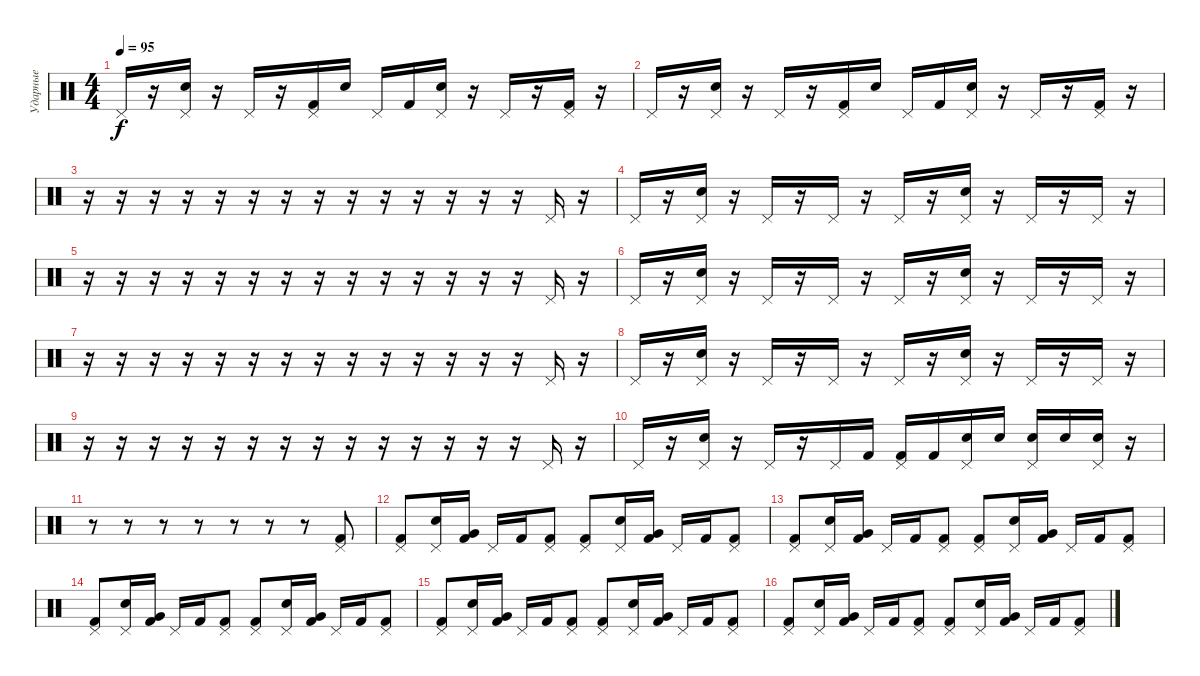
\track ("Ударные" "Ударные") {instrument percussion}
\staff {score}
\articulation defaults
\ts (4 4)
\tempo 95
\clef neutral
\ks c "Pedal Hi-Hat (hit)".16{dy f}
r.16 ("Pedal Hi-Hat (hit)" "Snare (hit) 2").16 r.16 "Pedal Hi-Hat (hit)".16 r.16 ("Pedal Hi-Hat (hit)" "Kick (hit) 2").16 "Snare (hit) 2".16 "Pedal Hi-Hat (hit)".16 "Kick (hit) 2".16 ("Pedal Hi-Hat (hit)" "Snare (hit) 2").16 r.16 "Pedal Hi-Hat (hit)".16 r.16 ("Pedal Hi-Hat (hit)" "Kick (hit) 2").16 r.16 |
"Pedal Hi-Hat (hit)".16 r.16 ("Pedal Hi-Hat (hit)" "Snare (hit) 2").16 r.16 "Pedal Hi-Hat (hit)".16 r.16 ("Pedal Hi-Hat (hit)" "Kick (hit) 2").16 "Snare (hit) 2".16 "Pedal Hi-Hat (hit)".16 "Kick (hit) 2".16 ("Pedal Hi-Hat (hit)" "Snare (hit) 2").16 r.16 "Pedal Hi-Hat (hit)".16 r.16 ("Pedal Hi-Hat (hit)" "Kick (hit) 2").16 r.16 |
r.16 r.16 r.16 r.16 r.16 r.16 r.16 r.16 r.16 r.16 r.16 r.16 r.16 r.16 "Pedal Hi-Hat (hit)".16 r.16 |
"Pedal Hi-Hat (hit)".16 r.16 ("Pedal Hi-Hat (hit)" "Snare (hit) 2").16 r.16 "Pedal Hi-Hat (hit)".16 r.16 "Pedal Hi-Hat (hit)".16 r.16 "Pedal Hi-Hat (hit)".16 r.16 ("Pedal Hi-Hat (hit)" "Snare (hit) 2").16 r.16 "Pedal Hi-Hat (hit)".16 r.16 "Pedal Hi-Hat (hit)".16 r.16 |
r.16 r.16 r.16 r.16 r.16 r.16 r.16 r.16 r.16 r.16 r.16 r.16 r.16 r.16 "Pedal Hi-Hat (hit)".16 r.16 |
"Pedal Hi-Hat (hit)".16 r.16 ("Pedal Hi-Hat (hit)" "Snare (hit) 2").16 r.16 "Pedal Hi-Hat (hit)".16 r.16 "Pedal Hi-Hat (hit)".16 r.16 "Pedal Hi-Hat (hit)".16 r.16 ("Pedal Hi-Hat (hit)" "Snare (hit) 2").16 r.16 "Pedal Hi-Hat (hit)".16 r.16 "Pedal Hi-Hat (hit)".16 r.16 |
r.16 r.16 r.16 r.16 r.16 r.16 r.16 r.16 r.16 r.16 r.16 r.16 r.16 r.16 "Pedal Hi-Hat (hit)".16 r.16 |
"Pedal Hi-Hat (hit)".16 r.16 ("Pedal Hi-Hat (hit)" "Snare (hit) 2").16 r.16 "Pedal Hi-Hat (hit)".16 r.16 "Pedal Hi-Hat (hit)".16 r.16 "Pedal Hi-Hat (hit)".16 r.16 ("Pedal Hi-Hat (hit)" "Snare (hit) 2").16 r.16 "Pedal Hi-Hat (hit)".16 r.16 "Pedal Hi-Hat (hit)".16 r.16 |
r.16 r.16 r.16 r.16 r.16 r.16 r.16 r.16 r.16 r.16 r.16 r.16 r.16 r.16 "Pedal Hi-Hat (hit)".16 r.16 |
"Pedal Hi-Hat (hit)".16 r.16 ("Pedal Hi-Hat (hit)" "Snare (hit) 2").16 r.16 "Pedal Hi-Hat (hit)".16 r.16 "Pedal Hi-Hat (hit)".16 "Kick (hit) 2".16 ("Pedal Hi-Hat (hit)" "Kick (hit) 2").16 "Kick (hit) 2".16 ("Pedal Hi-Hat (hit)" "Snare (hit) 2").16 "Snare (hit) 2".16 ("Pedal Hi-Hat (hit)" "Snare (hit) 2").16 "Snare (hit) 2".16 ("Pedal Hi-Hat (hit)" "Snare (hit) 2").16 r.16 |
r.8 r.8 r.8 r.8 r.8 r.8 r.8 ("Pedal Hi-Hat (hit)" "Kick (hit) 2").8 |
("Pedal Hi-Hat (hit)" "Kick (hit) 2").8 ("Pedal Hi-Hat (hit)" "Snare (hit) 2").16 ("Very Low Tom (hit)" "Kick (hit) 2").16 "Pedal Hi-Hat (hit)".16 "Kick (hit) 2".16 ("Pedal Hi-Hat (hit)" "Kick (hit) 2").8 ("Pedal Hi-Hat (hit)" "Kick (hit) 2").8 ("Pedal Hi-Hat (hit)" "Snare (hit) 2").16 ("Very Low Tom (hit)" "Kick (hit) 2").16 "Pedal Hi-Hat (hit)".16 "Kick (hit) 2".16 ("Pedal Hi-Hat (hit)" "Kick (hit) 2").8 |
("Pedal Hi-Hat (hit)" "Kick (hit) 2").8 ("Pedal Hi-Hat (hit)" "Snare (hit) 2").16 ("Very Low Tom (hit)" "Kick (hit) 2").16 "Pedal Hi-Hat (hit)".16 "Kick (hit) 2".16 ("Pedal Hi-Hat (hit)" "Kick (hit) 2").8 ("Pedal Hi-Hat (hit)" "Kick (hit) 2").8 ("Pedal Hi-Hat (hit)" "Snare (hit) 2").16 ("Very Low Tom (hit)" "Kick (hit) 2").16 "Pedal Hi-Hat (hit)".16 "Kick (hit) 2".16 ("Pedal Hi-Hat (hit)" "Kick (hit) 2").8 |
("Pedal Hi-Hat (hit)" "Kick (hit) 2").8 ("Pedal Hi-Hat (hit)" "Snare (hit) 2").16 ("Very Low Tom (hit)" "Kick (hit) 2").16 "Pedal Hi-Hat (hit)".16 "Kick (hit) 2".16 ("Pedal Hi-Hat (hit)" "Kick (hit) 2").8 ("Pedal Hi-Hat (hit)" "Kick (hit) 2").8 ("Pedal Hi-Hat (hit)" "Snare (hit) 2").16 ("Very Low Tom (hit)" "Kick (hit) 2").16 "Pedal Hi-Hat (hit)".16 "Kick (hit) 2".16 ("Pedal Hi-Hat (hit)" "Kick (hit) 2").8 |
("Pedal Hi-Hat (hit)" "Kick (hit) 2").8 ("Pedal Hi-Hat (hit)" "Snare (hit) 2").16 ("Very Low Tom (hit)" "Kick (hit) 2").16 "Pedal Hi-Hat (hit)".16 "Kick (hit) 2".16 ("Pedal Hi-Hat (hit)" "Kick (hit) 2").8 ("Pedal Hi-Hat (hit)" "Kick (hit) 2").8 ("Pedal Hi-Hat (hit)" "Snare (hit) 2").16 ("Very Low Tom (hit)" "Kick (hit) 2").16 "Pedal Hi-Hat (hit)".16 "Kick (hit) 2".16 ("Pedal Hi-Hat (hit)" "Kick (hit) 2").8 |
("Pedal Hi-Hat (hit)" "Kick (hit) 2").8 ("Pedal Hi-Hat (hit)" "Snare (hit) 2").16 ("Very Low Tom (hit)" "Kick (hit) 2").16 "Pedal Hi-Hat (hit)".16 "Kick (hit) 2".16 ("Pedal Hi-Hat (hit)" "Kick (hit) 2").8 ("Pedal Hi-Hat (hit)" "Kick (hit) 2").8 ("Pedal Hi-Hat (hit)" "Snare (hit) 2").16 ("Very Low Tom (hit)" "Kick (hit) 2").16 "Pedal Hi-Hat (hit)".16 "Kick (hit) 2".16 ("Pedal Hi-Hat (hit)" "Kick (hit) 2").8
